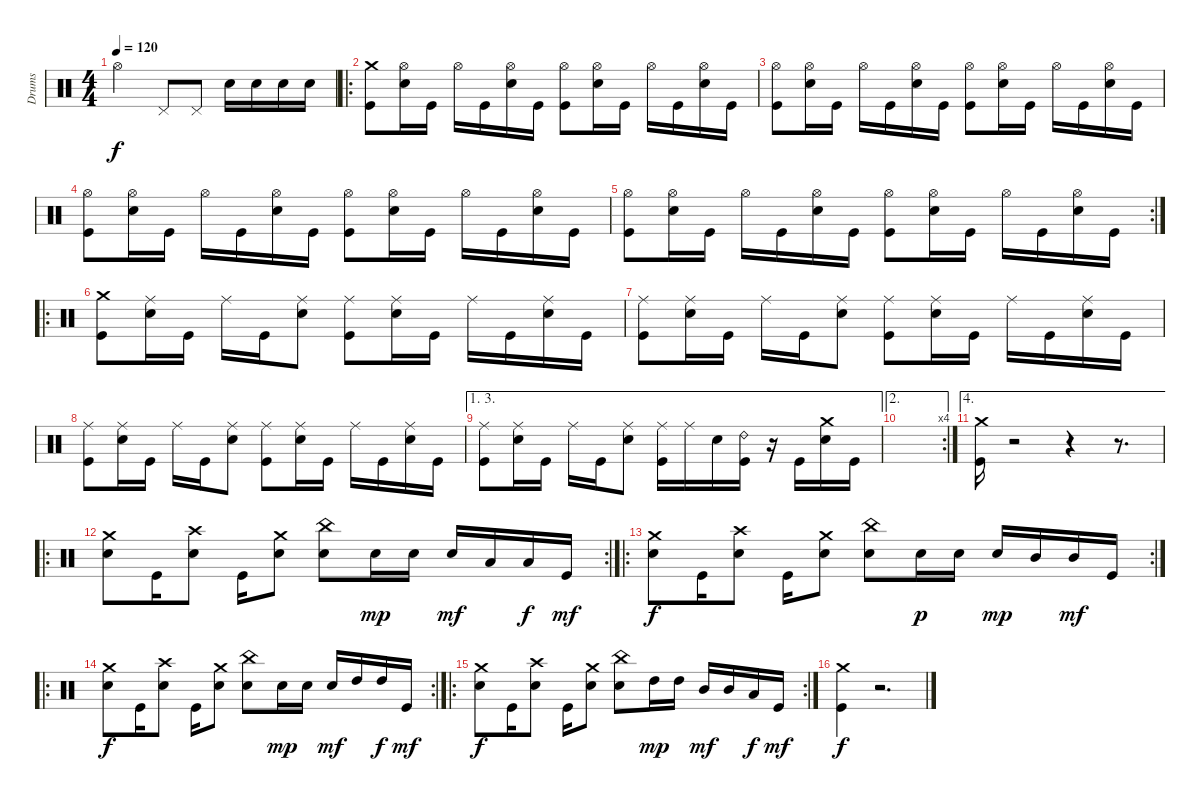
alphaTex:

\bracketExtendMode groupsimilarinstruments
\otherSystemsTrackNameOrientation horizontal
\track ("Drumkit" "Drums") {multiBarRest instrument percussion}
\staff {score}
\articulation defaults
\ts (4 4)
\tempo 120
\clef neutral
\ks c "Hi-Hat (open)".2{dy f} "Pedal Hi-Hat (hit)".8 "Pedal Hi-Hat (hit)".8 "Snare (hit) 2".16 "Snare (hit) 2".16 "Snare (hit) 2".16 "Snare (hit) 2".16
|
\ro
("Crash medium (hit)" "Kick (hit)").8 ("Hi-Hat (open)" "Snare (hit) 2").16 "Kick (hit)".16 "Hi-Hat (open)".16 "Kick (hit)".16 ("Hi-Hat (open)" "Snare (hit) 2").16 "Kick (hit)".16 ("Hi-Hat (open)" "Kick (hit)").8 ("Hi-Hat (open)" "Snare (hit) 2").16 "Kick (hit)".16 "Hi-Hat (open)".16 "Kick (hit)".16 ("Hi-Hat (open)" "Snare (hit) 2").16 "Kick (hit)".16 |
("Hi-Hat (open)" "Kick (hit)").8 ("Hi-Hat (open)" "Snare (hit) 2").16 "Kick (hit)".16 "Hi-Hat (open)".16 "Kick (hit)".16 ("Hi-Hat (open)" "Snare (hit) 2").16 "Kick (hit)".16 ("Hi-Hat (open)" "Kick (hit)").8 ("Hi-Hat (open)" "Snare (hit) 2").16 "Kick (hit)".16 "Hi-Hat (open)".16 "Kick (hit)".16 ("Hi-Hat (open)" "Snare (hit) 2").16 "Kick (hit)".16 |
("Hi-Hat (open)" "Kick (hit)").8 ("Hi-Hat (open)" "Snare (hit) 2").16 "Kick (hit)".16 "Hi-Hat (open)".16 "Kick (hit)".16 ("Hi-Hat (open)" "Snare (hit) 2").16 "Kick (hit)".16 ("Hi-Hat (open)" "Kick (hit)").8 ("Hi-Hat (open)" "Snare (hit) 2").16 "Kick (hit)".16 "Hi-Hat (open)".16 "Kick (hit)".16 ("Hi-Hat (open)" "Snare (hit) 2").16 "Kick (hit)".16 |
\rc 2
("Hi-Hat (open)" "Kick (hit)").8 ("Hi-Hat (open)" "Snare (hit) 2").16 "Kick (hit)".16 "Hi-Hat (open)".16 "Kick (hit)".16 ("Hi-Hat (open)" "Snare (hit) 2").16 "Kick (hit)".16 ("Hi-Hat (open)" "Kick (hit)").8 ("Hi-Hat (open)" "Snare (hit) 2").16 "Kick (hit)".16 "Hi-Hat (open)".16 "Kick (hit)".16 ("Hi-Hat (open)" "Snare (hit) 2").16 "Kick (hit)".16 |
\ro
("Crash medium (hit)" "Kick (hit)").8 ("Ride (middle)" "Snare (hit) 2").16 "Kick (hit)".16 "Ride (middle)".16 "Kick (hit)".16 ("Ride (middle)" "Snare (hit) 2").8 ("Ride (middle)" "Kick (hit)").8 ("Ride (middle)" "Snare (hit) 2").16 "Kick (hit)".16 "Ride (middle)".16 "Kick (hit)".16 ("Ride (middle)" "Snare (hit) 2").16 "Kick (hit)".16 |
("Ride (middle)" "Kick (hit)").8 ("Ride (middle)" "Snare (hit) 2").16 "Kick (hit)".16 "Ride (middle)".16 "Kick (hit)".16 ("Ride (middle)" "Snare (hit) 2").8 ("Ride (middle)" "Kick (hit)").8 ("Ride (middle)" "Snare (hit) 2").16 "Kick (hit)".16 "Ride (middle)".16 "Kick (hit)".16 ("Ride (middle)" "Snare (hit) 2").16 "Kick (hit)".16 |
("Ride (middle)" "Kick (hit)").8 ("Ride (middle)" "Snare (hit) 2").16 "Kick (hit)".16 "Ride (middle)".16 "Kick (hit)".16 ("Ride (middle)" "Snare (hit) 2").8 ("Ride (middle)" "Kick (hit)").8 ("Ride (middle)" "Snare (hit) 2").16 "Kick (hit)".16 "Ride (middle)".16 "Kick (hit)".16 ("Ride (middle)" "Snare (hit) 2").16 "Kick (hit)".16 |
\ae (1 3)
("Ride (middle)" "Kick (hit)").8 ("Ride (middle)" "Snare (hit) 2").16 "Kick (hit)".16 "Ride (middle)".16 "Kick (hit)".16 ("Ride (middle)" "Snare (hit) 2").8 ("Ride (middle)" "Kick (hit)").16 "Ride (middle)".16 "Snare (hit) 2".16 ("Ride (bell) 2" "Kick (hit)").16 r.16 "Kick (hit)".16 ("Crash medium (hit)" "Snare (hit) 2").16 "Kick (hit)".16 |
\ae 2
\rc 4
|
\ae 4
("Crash medium (hit)" "Kick (hit)").16 r.2 r.4 r.8{d} |
\ro
\rc 2
("Crash medium (hit)" "Snare (hit) 2").8 "Kick (hit)".16 ("Crash high (hit)" "Snare (hit) 2").8 "Kick (hit)".16 ("Crash medium (hit)" "Snare (hit) 2").8 ("China (hit)" "Snare (hit) 2").8 "Snare (hit) 2".16{dy mp} "Snare (hit) 2".16 "Snare (hit) 2".16{dy mf} "Low Tom (hit)".16 "Low Tom (hit)".16{dy f} "Kick (hit)".16{dy mf} |
\ro
\rc 2
("Crash medium (hit)" "Snare (hit) 2").8{dy f} "Kick (hit)".16 ("Crash high (hit)" "Snare (hit) 2").8 "Kick (hit)".16 ("Crash medium (hit)" "Snare (hit) 2").8 ("China (hit)" "Snare (hit) 2").8 "Snare (hit) 2".16{dy p} "Snare (hit) 2".16 "Snare (hit) 2".16{dy mp} "Mid Tom (hit)".16 "Mid Tom (hit)".16{dy mf} "Kick (hit)".16 |
\ro
\rc 2
("Crash medium (hit)" "Snare (hit) 2").8{dy f} "Kick (hit)".16 ("Crash high (hit)" "Snare (hit) 2").8 "Kick (hit)".16 ("Crash medium (hit)" "Snare (hit) 2").8 ("China (hit)" "Snare (hit) 2").8 "Snare (hit) 2".16{dy mp} "Snare (hit) 2".16 "Snare (hit) 2".16{dy mf} "High Tom (hit)".16 "High Tom (hit)".16{dy f} "Kick (hit)".16{dy mf} |
\ro
\rc 2
("Crash medium (hit)" "Snare (hit) 2").8{dy f} "Kick (hit)".16 ("Crash high (hit)" "Snare (hit) 2").8 "Kick (hit)".16 ("Crash medium (hit)" "Snare (hit) 2").8 ("China (hit)" "Snare (hit) 2").8 "High Tom (hit)".16{dy mp} "High Tom (hit)".16 "Mid Tom (hit)".16{dy mf} "Mid Tom (hit)".16 "Low Tom (hit)".16{dy f} "Kick (hit)".16{dy mf} |
("Crash medium (hit)" "Kick (hit)").4{dy f} r.2{d}
